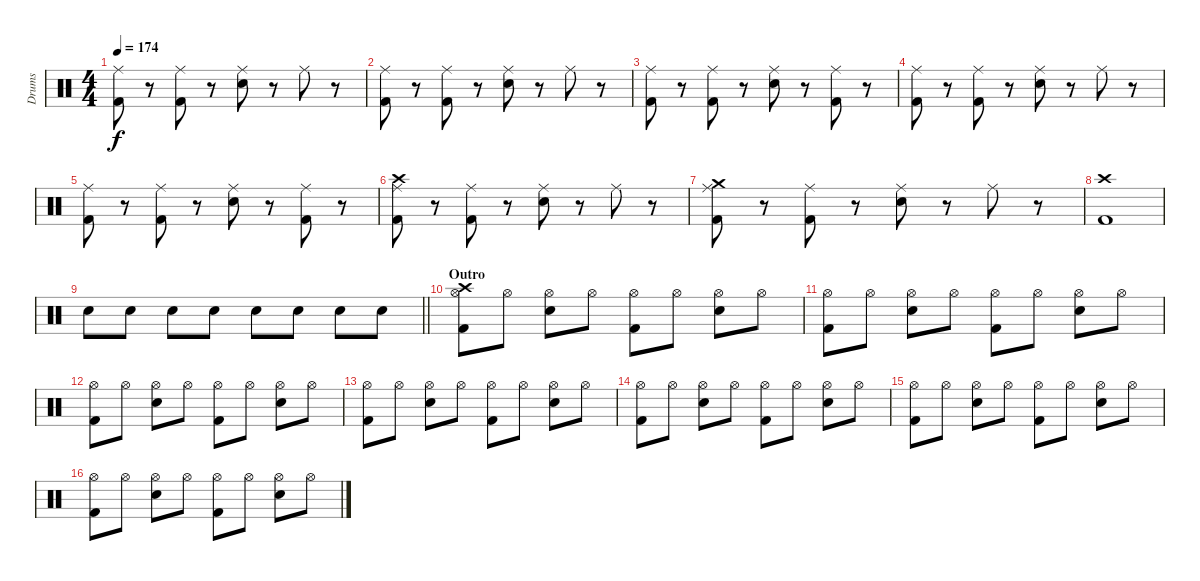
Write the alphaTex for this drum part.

\track ("Drums" "Drums") {instrument percussion}
\staff {score}
\articulation defaults
\ts (4 4)
\tempo 174
\clef neutral
\ks c
("Ride (middle)" "Kick (hit) 2").8{dy f} r.8 ("Ride (middle)" "Kick (hit) 2").8 r.8 ("Ride (middle)" "Snare (hit) 2").8 r.8 "Ride (middle)".8 r.8 |
("Ride (middle)" "Kick (hit) 2").8 r.8 ("Ride (middle)" "Kick (hit) 2").8 r.8 ("Ride (middle)" "Snare (hit) 2").8 r.8 "Ride (middle)".8 r.8 |
("Ride (middle)" "Kick (hit) 2").8 r.8 ("Ride (middle)" "Kick (hit) 2").8 r.8 ("Ride (middle)" "Snare (hit) 2").8 r.8 ("Ride (middle)" "Kick (hit) 2").8 r.8 |
("Ride (middle)" "Kick (hit) 2").8 r.8 ("Ride (middle)" "Kick (hit) 2").8 r.8 ("Ride (middle)" "Snare (hit) 2").8 r.8 "Ride (middle)".8 r.8 |
("Ride (middle)" "Kick (hit) 2").8 r.8 ("Ride (middle)" "Kick (hit) 2").8 r.8 ("Ride (middle)" "Snare (hit) 2").8 r.8 ("Ride (middle)" "Kick (hit) 2").8 r.8 |
("Ride (middle)" "Crash high (hit)" "Kick (hit) 2").8 r.8 ("Ride (middle)" "Kick (hit) 2").8 r.8 ("Ride (middle)" "Snare (hit) 2").8 r.8 "Ride (middle)".8 r.8 |
("Ride (middle)" "Crash medium (hit)" "Kick (hit) 2").8 r.8 ("Ride (middle)" "Kick (hit) 2").8 r.8 ("Ride (middle)" "Snare (hit) 2").8 r.8 "Ride (middle)".8 r.8 |
("Crash high (hit)" "Kick (hit) 2").1 |
\barLineRight lightlight "Snare (hit) 2".8 "Snare (hit) 2".8 "Snare (hit) 2".8 "Snare (hit) 2".8 "Snare (hit) 2".8 "Snare (hit) 2".8 "Snare (hit) 2".8 "Snare (hit) 2".8
|
\section ("" "Outro")
("Crash high (hit)" "Hi-Hat (open)" "Kick (hit) 2").8 "Hi-Hat (open)".8 ("Hi-Hat (open)" "Snare (hit) 2").8 "Hi-Hat (open)".8 ("Hi-Hat (open)" "Kick (hit) 2").8 "Hi-Hat (open)".8 ("Hi-Hat (open)" "Snare (hit) 2").8 "Hi-Hat (open)".8 |
("Hi-Hat (open)" "Kick (hit) 2").8 "Hi-Hat (open)".8 ("Hi-Hat (open)" "Snare (hit) 2").8 "Hi-Hat (open)".8 ("Hi-Hat (open)" "Kick (hit) 2").8 "Hi-Hat (open)".8 ("Hi-Hat (open)" "Snare (hit) 2").8 "Hi-Hat (open)".8 |
("Hi-Hat (open)" "Kick (hit) 2").8 "Hi-Hat (open)".8 ("Hi-Hat (open)" "Snare (hit) 2").8 "Hi-Hat (open)".8 ("Hi-Hat (open)" "Kick (hit) 2").8 "Hi-Hat (open)".8 ("Hi-Hat (open)" "Snare (hit) 2").8 "Hi-Hat (open)".8 |
("Hi-Hat (open)" "Kick (hit) 2").8 "Hi-Hat (open)".8 ("Hi-Hat (open)" "Snare (hit) 2").8 "Hi-Hat (open)".8 ("Hi-Hat (open)" "Kick (hit) 2").8 "Hi-Hat (open)".8 ("Hi-Hat (open)" "Snare (hit) 2").8 "Hi-Hat (open)".8 |
("Hi-Hat (open)" "Kick (hit) 2").8 "Hi-Hat (open)".8 ("Hi-Hat (open)" "Snare (hit) 2").8 "Hi-Hat (open)".8 ("Hi-Hat (open)" "Kick (hit) 2").8 "Hi-Hat (open)".8 ("Hi-Hat (open)" "Snare (hit) 2").8 "Hi-Hat (open)".8 |
("Hi-Hat (open)" "Kick (hit) 2").8 "Hi-Hat (open)".8 ("Hi-Hat (open)" "Snare (hit) 2").8 "Hi-Hat (open)".8 ("Hi-Hat (open)" "Kick (hit) 2").8 "Hi-Hat (open)".8 ("Hi-Hat (open)" "Snare (hit) 2").8 "Hi-Hat (open)".8 |
("Hi-Hat (open)" "Kick (hit) 2").8 "Hi-Hat (open)".8 ("Hi-Hat (open)" "Snare (hit) 2").8 "Hi-Hat (open)".8 ("Hi-Hat (open)" "Kick (hit) 2").8 "Hi-Hat (open)".8 ("Hi-Hat (open)" "Snare (hit) 2").8 "Hi-Hat (open)".8
